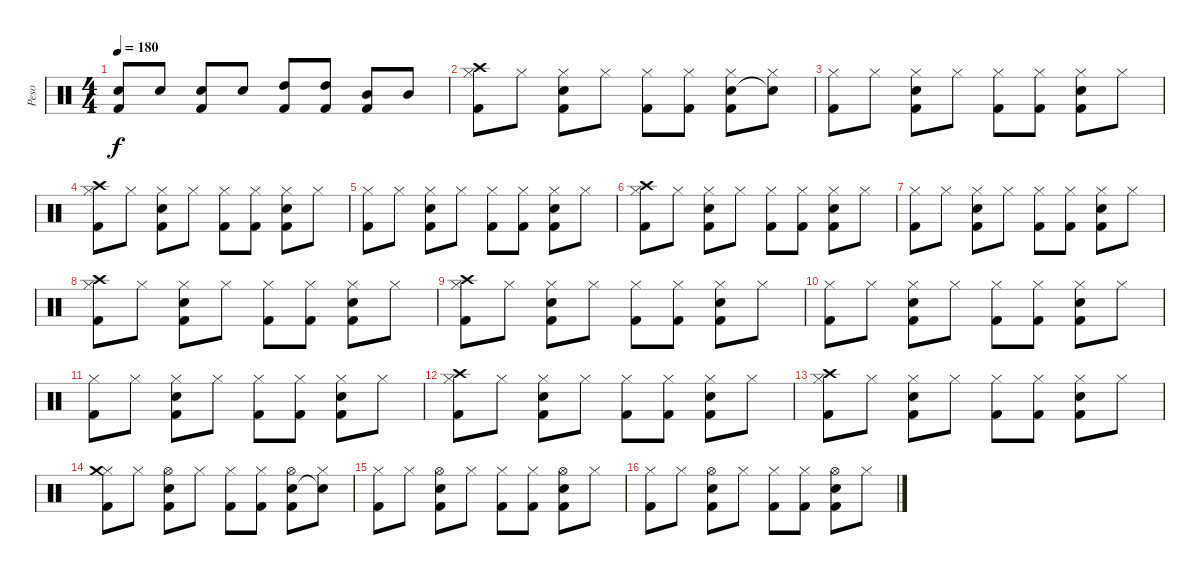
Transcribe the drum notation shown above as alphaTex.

\track ("Peso" "Peso") {instrument percussion}
\staff {score}
\articulation defaults
\ts (4 4)
\tempo 180
\clef neutral
\ks c
("Snare (hit) 2" "Kick (hit) 2").8{dy f} "Snare (hit) 2".8 ("Snare (hit) 2" "Kick (hit) 2").8 "Snare (hit) 2".8 ("High Tom (hit)" "Kick (hit) 2").8 ("High Tom (hit)" "Kick (hit) 2").8 ("Mid Tom (hit)" "Kick (hit) 2").8 "Mid Tom (hit)".8 |
("Hi-Hat (closed)" "Crash high (hit)" "Kick (hit) 2").8 "Hi-Hat (closed)".8 ("Hi-Hat (closed)" "Electric Snare (hit)" "Kick (hit) 2").8 "Hi-Hat (closed)".8 ("Hi-Hat (closed)" "Kick (hit) 2").8 ("Hi-Hat (closed)" "Kick (hit) 2").8 ("Hi-Hat (closed)" "Electric Snare (hit)" "Kick (hit) 2").8 ("Hi-Hat (closed)" "Snare (hit)"{t}).8 |
("Hi-Hat (closed)" "Kick (hit) 2").8 "Hi-Hat (closed)".8 ("Hi-Hat (closed)" "Electric Snare (hit)" "Kick (hit) 2").8 "Hi-Hat (closed)".8 ("Hi-Hat (closed)" "Kick (hit) 2").8 ("Hi-Hat (closed)" "Kick (hit) 2").8 ("Hi-Hat (closed)" "Electric Snare (hit)" "Kick (hit) 2").8 "Hi-Hat (closed)".8 |
("Hi-Hat (closed)" "Crash high (hit)" "Kick (hit) 2").8 "Hi-Hat (closed)".8 ("Hi-Hat (closed)" "Electric Snare (hit)" "Kick (hit) 2").8 "Hi-Hat (closed)".8 ("Hi-Hat (closed)" "Kick (hit) 2").8 ("Hi-Hat (closed)" "Kick (hit) 2").8 ("Hi-Hat (closed)" "Electric Snare (hit)" "Kick (hit) 2").8 "Hi-Hat (closed)".8 |
("Hi-Hat (closed)" "Kick (hit) 2").8 "Hi-Hat (closed)".8 ("Hi-Hat (closed)" "Electric Snare (hit)" "Kick (hit) 2").8 "Hi-Hat (closed)".8 ("Hi-Hat (closed)" "Kick (hit) 2").8 ("Hi-Hat (closed)" "Kick (hit) 2").8 ("Hi-Hat (closed)" "Electric Snare (hit)" "Kick (hit) 2").8 "Hi-Hat (closed)".8 |
("Hi-Hat (closed)" "Crash high (hit)" "Kick (hit) 2").8 "Hi-Hat (closed)".8 ("Hi-Hat (closed)" "Electric Snare (hit)" "Kick (hit) 2").8 "Hi-Hat (closed)".8 ("Hi-Hat (closed)" "Kick (hit) 2").8 ("Hi-Hat (closed)" "Kick (hit) 2").8 ("Hi-Hat (closed)" "Electric Snare (hit)" "Kick (hit) 2").8 "Hi-Hat (closed)".8 |
("Hi-Hat (closed)" "Kick (hit) 2").8 "Hi-Hat (closed)".8 ("Hi-Hat (closed)" "Electric Snare (hit)" "Kick (hit) 2").8 "Hi-Hat (closed)".8 ("Hi-Hat (closed)" "Kick (hit) 2").8 ("Hi-Hat (closed)" "Kick (hit) 2").8 ("Hi-Hat (closed)" "Electric Snare (hit)" "Kick (hit) 2").8 "Hi-Hat (closed)".8 |
("Hi-Hat (closed)" "Crash high (hit)" "Kick (hit) 2").8 "Hi-Hat (closed)".8 ("Hi-Hat (closed)" "Electric Snare (hit)" "Kick (hit) 2").8 "Hi-Hat (closed)".8 ("Hi-Hat (closed)" "Kick (hit) 2").8 ("Hi-Hat (closed)" "Kick (hit) 2").8 ("Hi-Hat (closed)" "Electric Snare (hit)" "Kick (hit) 2").8 "Hi-Hat (closed)".8 |
("Hi-Hat (closed)" "Crash high (hit)" "Kick (hit) 2").8 "Hi-Hat (closed)".8 ("Hi-Hat (closed)" "Electric Snare (hit)" "Kick (hit) 2").8 "Hi-Hat (closed)".8 ("Hi-Hat (closed)" "Kick (hit) 2").8 ("Hi-Hat (closed)" "Kick (hit) 2").8 ("Hi-Hat (closed)" "Electric Snare (hit)" "Kick (hit) 2").8 "Hi-Hat (closed)".8 |
("Hi-Hat (closed)" "Kick (hit) 2").8 "Hi-Hat (closed)".8 ("Hi-Hat (closed)" "Electric Snare (hit)" "Kick (hit) 2").8 "Hi-Hat (closed)".8 ("Hi-Hat (closed)" "Kick (hit) 2").8 ("Hi-Hat (closed)" "Kick (hit) 2").8 ("Hi-Hat (closed)" "Electric Snare (hit)" "Kick (hit) 2").8 "Hi-Hat (closed)".8 |
("Hi-Hat (closed)" "Kick (hit) 2").8 "Hi-Hat (closed)".8 ("Hi-Hat (closed)" "Electric Snare (hit)" "Kick (hit) 2").8 "Hi-Hat (closed)".8 ("Hi-Hat (closed)" "Kick (hit) 2").8 ("Hi-Hat (closed)" "Kick (hit) 2").8 ("Hi-Hat (closed)" "Electric Snare (hit)" "Kick (hit) 2").8 "Hi-Hat (closed)".8 |
("Hi-Hat (closed)" "Crash high (hit)" "Kick (hit) 2").8 "Hi-Hat (closed)".8 ("Hi-Hat (closed)" "Electric Snare (hit)" "Kick (hit) 2").8 "Hi-Hat (closed)".8 ("Hi-Hat (closed)" "Kick (hit) 2").8 ("Hi-Hat (closed)" "Kick (hit) 2").8 ("Hi-Hat (closed)" "Electric Snare (hit)" "Kick (hit) 2").8 "Hi-Hat (closed)".8 |
("Hi-Hat (closed)" "Crash high (hit)" "Kick (hit) 2").8 "Hi-Hat (closed)".8 ("Hi-Hat (closed)" "Electric Snare (hit)" "Kick (hit) 2").8 "Hi-Hat (closed)".8 ("Hi-Hat (closed)" "Kick (hit) 2").8 ("Hi-Hat (closed)" "Kick (hit) 2").8 ("Hi-Hat (closed)" "Electric Snare (hit)" "Kick (hit) 2").8 "Hi-Hat (closed)".8 |
("Hi-Hat (closed)" "Crash medium (hit)" "Kick (hit) 2").8 "Hi-Hat (closed)".8 ("Hi-Hat (open)" "Electric Snare (hit)" "Kick (hit) 2").8 "Hi-Hat (closed)".8 ("Hi-Hat (closed)" "Kick (hit) 2").8 ("Hi-Hat (closed)" "Kick (hit) 2").8 ("Hi-Hat (open)" "Electric Snare (hit)" "Kick (hit) 2").8 ("Hi-Hat (closed)" "Snare (hit)"{t}).8 |
("Hi-Hat (closed)" "Kick (hit) 2").8 "Hi-Hat (closed)".8 ("Hi-Hat (open)" "Electric Snare (hit)" "Kick (hit) 2").8 "Hi-Hat (closed)".8 ("Hi-Hat (closed)" "Kick (hit) 2").8 ("Hi-Hat (closed)" "Kick (hit) 2").8 ("Hi-Hat (open)" "Electric Snare (hit)" "Kick (hit) 2").8 "Hi-Hat (closed)".8 |
("Hi-Hat (closed)" "Kick (hit) 2").8 "Hi-Hat (closed)".8 ("Hi-Hat (open)" "Electric Snare (hit)" "Kick (hit) 2").8 "Hi-Hat (closed)".8 ("Hi-Hat (closed)" "Kick (hit) 2").8 ("Hi-Hat (closed)" "Kick (hit) 2").8 ("Hi-Hat (open)" "Electric Snare (hit)" "Kick (hit) 2").8 "Hi-Hat (closed)".8
